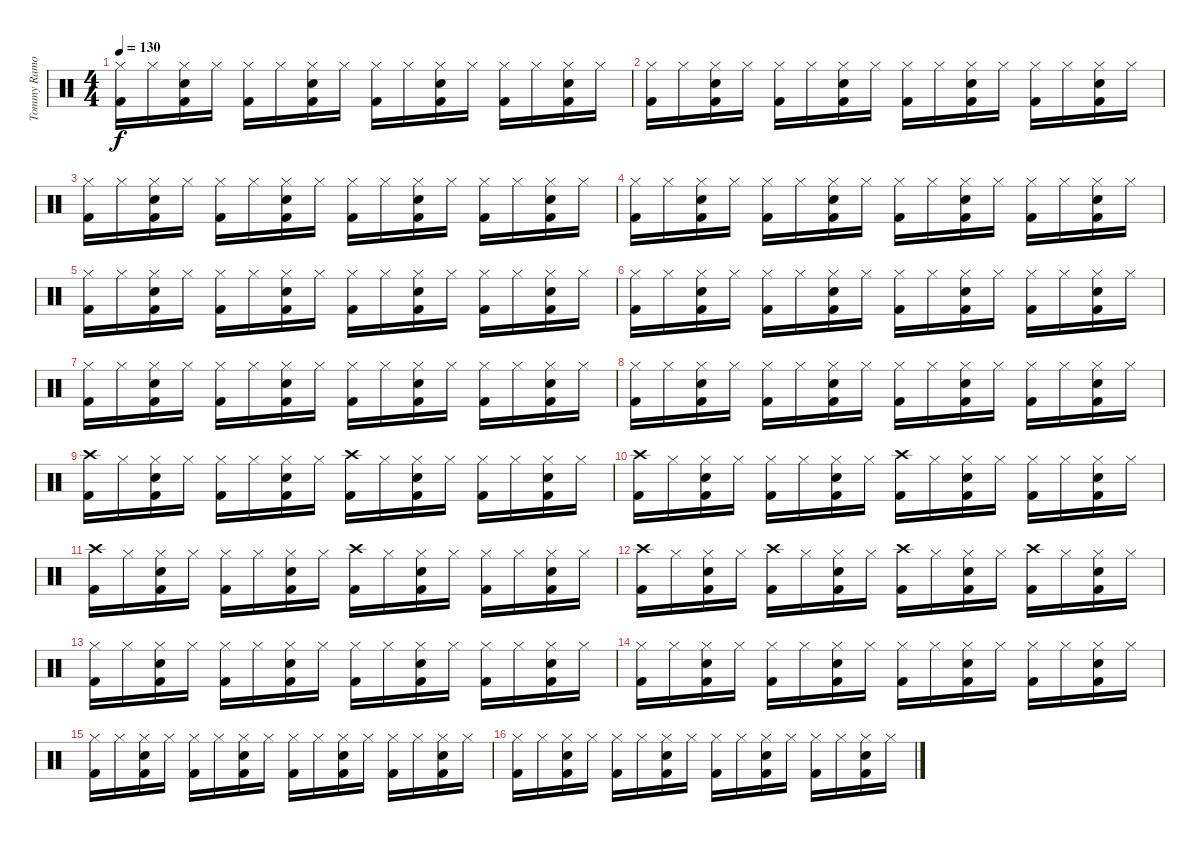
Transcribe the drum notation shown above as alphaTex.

\track ("Tommy Ramone - Percusion" "Tommy Ramo") {instrument percussion}
\staff {score}
\articulation defaults
\ts (4 4)
\tempo 130
\clef neutral
\ks c
("Hi-Hat (closed)" "Kick (hit) 2").16{dy f} "Hi-Hat (closed)".16 ("Hi-Hat (closed)" "Electric Snare (hit)" "Kick (hit) 2").16 "Hi-Hat (closed)".16 ("Hi-Hat (closed)" "Kick (hit) 2").16 "Hi-Hat (closed)".16 ("Hi-Hat (closed)" "Electric Snare (hit)" "Kick (hit) 2").16 "Hi-Hat (closed)".16 ("Hi-Hat (closed)" "Kick (hit) 2").16 "Hi-Hat (closed)".16 ("Hi-Hat (closed)" "Electric Snare (hit)" "Kick (hit) 2").16 "Hi-Hat (closed)".16 ("Hi-Hat (closed)" "Kick (hit) 2").16 "Hi-Hat (closed)".16 ("Hi-Hat (closed)" "Electric Snare (hit)" "Kick (hit) 2").16 "Hi-Hat (closed)".16 |
("Hi-Hat (closed)" "Kick (hit) 2").16 "Hi-Hat (closed)".16 ("Hi-Hat (closed)" "Electric Snare (hit)" "Kick (hit) 2").16 "Hi-Hat (closed)".16 ("Hi-Hat (closed)" "Kick (hit) 2").16 "Hi-Hat (closed)".16 ("Hi-Hat (closed)" "Electric Snare (hit)" "Kick (hit) 2").16 "Hi-Hat (closed)".16 ("Hi-Hat (closed)" "Kick (hit) 2").16 "Hi-Hat (closed)".16 ("Hi-Hat (closed)" "Electric Snare (hit)" "Kick (hit) 2").16 "Hi-Hat (closed)".16 ("Hi-Hat (closed)" "Kick (hit) 2").16 "Hi-Hat (closed)".16 ("Hi-Hat (closed)" "Electric Snare (hit)" "Kick (hit) 2").16 "Hi-Hat (closed)".16 |
("Hi-Hat (closed)" "Kick (hit) 2").16 "Hi-Hat (closed)".16 ("Hi-Hat (closed)" "Electric Snare (hit)" "Kick (hit) 2").16 "Hi-Hat (closed)".16 ("Hi-Hat (closed)" "Kick (hit) 2").16 "Hi-Hat (closed)".16 ("Hi-Hat (closed)" "Electric Snare (hit)" "Kick (hit) 2").16 "Hi-Hat (closed)".16 ("Hi-Hat (closed)" "Kick (hit) 2").16 "Hi-Hat (closed)".16 ("Hi-Hat (closed)" "Electric Snare (hit)" "Kick (hit) 2").16 "Hi-Hat (closed)".16 ("Hi-Hat (closed)" "Kick (hit) 2").16 "Hi-Hat (closed)".16 ("Hi-Hat (closed)" "Electric Snare (hit)" "Kick (hit) 2").16 "Hi-Hat (closed)".16 |
("Hi-Hat (closed)" "Kick (hit) 2").16 "Hi-Hat (closed)".16 ("Hi-Hat (closed)" "Electric Snare (hit)" "Kick (hit) 2").16 "Hi-Hat (closed)".16 ("Hi-Hat (closed)" "Kick (hit) 2").16 "Hi-Hat (closed)".16 ("Hi-Hat (closed)" "Electric Snare (hit)" "Kick (hit) 2").16 "Hi-Hat (closed)".16 ("Hi-Hat (closed)" "Kick (hit) 2").16 "Hi-Hat (closed)".16 ("Hi-Hat (closed)" "Electric Snare (hit)" "Kick (hit) 2").16 "Hi-Hat (closed)".16 ("Hi-Hat (closed)" "Kick (hit) 2").16 "Hi-Hat (closed)".16 ("Hi-Hat (closed)" "Electric Snare (hit)" "Kick (hit) 2").16 "Hi-Hat (closed)".16 |
("Hi-Hat (closed)" "Kick (hit) 2").16 "Hi-Hat (closed)".16 ("Hi-Hat (closed)" "Electric Snare (hit)" "Kick (hit) 2").16 "Hi-Hat (closed)".16 ("Hi-Hat (closed)" "Kick (hit) 2").16 "Hi-Hat (closed)".16 ("Hi-Hat (closed)" "Electric Snare (hit)" "Kick (hit) 2").16 "Hi-Hat (closed)".16 ("Hi-Hat (closed)" "Kick (hit) 2").16 "Hi-Hat (closed)".16 ("Hi-Hat (closed)" "Electric Snare (hit)" "Kick (hit) 2").16 "Hi-Hat (closed)".16 ("Hi-Hat (closed)" "Kick (hit) 2").16 "Hi-Hat (closed)".16 ("Hi-Hat (closed)" "Electric Snare (hit)" "Kick (hit) 2").16 "Hi-Hat (closed)".16 |
("Hi-Hat (closed)" "Kick (hit) 2").16 "Hi-Hat (closed)".16 ("Hi-Hat (closed)" "Electric Snare (hit)" "Kick (hit) 2").16 "Hi-Hat (closed)".16 ("Hi-Hat (closed)" "Kick (hit) 2").16 "Hi-Hat (closed)".16 ("Hi-Hat (closed)" "Electric Snare (hit)" "Kick (hit) 2").16 "Hi-Hat (closed)".16 ("Hi-Hat (closed)" "Kick (hit) 2").16 "Hi-Hat (closed)".16 ("Hi-Hat (closed)" "Electric Snare (hit)" "Kick (hit) 2").16 "Hi-Hat (closed)".16 ("Hi-Hat (closed)" "Kick (hit) 2").16 "Hi-Hat (closed)".16 ("Hi-Hat (closed)" "Electric Snare (hit)" "Kick (hit) 2").16 "Hi-Hat (closed)".16 |
("Hi-Hat (closed)" "Kick (hit) 2").16 "Hi-Hat (closed)".16 ("Hi-Hat (closed)" "Electric Snare (hit)" "Kick (hit) 2").16 "Hi-Hat (closed)".16 ("Hi-Hat (closed)" "Kick (hit) 2").16 "Hi-Hat (closed)".16 ("Hi-Hat (closed)" "Electric Snare (hit)" "Kick (hit) 2").16 "Hi-Hat (closed)".16 ("Hi-Hat (closed)" "Kick (hit) 2").16 "Hi-Hat (closed)".16 ("Hi-Hat (closed)" "Electric Snare (hit)" "Kick (hit) 2").16 "Hi-Hat (closed)".16 ("Hi-Hat (closed)" "Kick (hit) 2").16 "Hi-Hat (closed)".16 ("Hi-Hat (closed)" "Electric Snare (hit)" "Kick (hit) 2").16 "Hi-Hat (closed)".16 |
("Hi-Hat (closed)" "Kick (hit) 2").16 "Hi-Hat (closed)".16 ("Hi-Hat (closed)" "Electric Snare (hit)" "Kick (hit) 2").16 "Hi-Hat (closed)".16 ("Hi-Hat (closed)" "Kick (hit) 2").16 "Hi-Hat (closed)".16 ("Hi-Hat (closed)" "Electric Snare (hit)" "Kick (hit) 2").16 "Hi-Hat (closed)".16 ("Hi-Hat (closed)" "Kick (hit) 2").16 "Hi-Hat (closed)".16 ("Hi-Hat (closed)" "Electric Snare (hit)" "Kick (hit) 2").16 "Hi-Hat (closed)".16 ("Hi-Hat (closed)" "Kick (hit) 2").16 "Hi-Hat (closed)".16 ("Hi-Hat (closed)" "Electric Snare (hit)" "Kick (hit) 2").16 "Hi-Hat (closed)".16 |
("Crash high (hit)" "Kick (hit) 2").16 "Hi-Hat (closed)".16 ("Hi-Hat (closed)" "Electric Snare (hit)" "Kick (hit) 2").16 "Hi-Hat (closed)".16 ("Hi-Hat (closed)" "Kick (hit) 2").16 "Hi-Hat (closed)".16 ("Hi-Hat (closed)" "Electric Snare (hit)" "Kick (hit) 2").16 "Hi-Hat (closed)".16 ("Crash high (hit)" "Kick (hit) 2").16 "Hi-Hat (closed)".16 ("Hi-Hat (closed)" "Electric Snare (hit)" "Kick (hit) 2").16 "Hi-Hat (closed)".16 ("Hi-Hat (closed)" "Kick (hit) 2").16 "Hi-Hat (closed)".16 ("Hi-Hat (closed)" "Electric Snare (hit)" "Kick (hit) 2").16 "Hi-Hat (closed)".16 |
("Crash high (hit)" "Kick (hit) 2").16 "Hi-Hat (closed)".16 ("Hi-Hat (closed)" "Electric Snare (hit)" "Kick (hit) 2").16 "Hi-Hat (closed)".16 ("Hi-Hat (closed)" "Kick (hit) 2").16 "Hi-Hat (closed)".16 ("Hi-Hat (closed)" "Electric Snare (hit)" "Kick (hit) 2").16 "Hi-Hat (closed)".16 ("Crash high (hit)" "Kick (hit) 2").16 "Hi-Hat (closed)".16 ("Hi-Hat (closed)" "Electric Snare (hit)" "Kick (hit) 2").16 "Hi-Hat (closed)".16 ("Hi-Hat (closed)" "Kick (hit) 2").16 "Hi-Hat (closed)".16 ("Hi-Hat (closed)" "Electric Snare (hit)" "Kick (hit) 2").16 "Hi-Hat (closed)".16 |
("Crash high (hit)" "Kick (hit) 2").16 "Hi-Hat (closed)".16 ("Hi-Hat (closed)" "Electric Snare (hit)" "Kick (hit) 2").16 "Hi-Hat (closed)".16 ("Hi-Hat (closed)" "Kick (hit) 2").16 "Hi-Hat (closed)".16 ("Hi-Hat (closed)" "Electric Snare (hit)" "Kick (hit) 2").16 "Hi-Hat (closed)".16 ("Crash high (hit)" "Kick (hit) 2").16 "Hi-Hat (closed)".16 ("Hi-Hat (closed)" "Electric Snare (hit)" "Kick (hit) 2").16 "Hi-Hat (closed)".16 ("Hi-Hat (closed)" "Kick (hit) 2").16 "Hi-Hat (closed)".16 ("Hi-Hat (closed)" "Electric Snare (hit)" "Kick (hit) 2").16 "Hi-Hat (closed)".16 |
("Crash high (hit)" "Kick (hit) 2").16 "Hi-Hat (closed)".16 ("Hi-Hat (closed)" "Electric Snare (hit)" "Kick (hit) 2").16 "Hi-Hat (closed)".16 ("Crash high (hit)" "Kick (hit) 2").16 "Hi-Hat (closed)".16 ("Hi-Hat (closed)" "Electric Snare (hit)" "Kick (hit) 2").16 "Hi-Hat (closed)".16 ("Crash high (hit)" "Kick (hit) 2").16 "Hi-Hat (closed)".16 ("Hi-Hat (closed)" "Electric Snare (hit)" "Kick (hit) 2").16 "Hi-Hat (closed)".16 ("Crash high (hit)" "Kick (hit) 2").16 "Hi-Hat (closed)".16 ("Hi-Hat (closed)" "Electric Snare (hit)" "Kick (hit) 2").16 "Hi-Hat (closed)".16 |
("Hi-Hat (closed)" "Kick (hit) 2").16 "Hi-Hat (closed)".16 ("Hi-Hat (closed)" "Electric Snare (hit)" "Kick (hit) 2").16 "Hi-Hat (closed)".16 ("Hi-Hat (closed)" "Kick (hit) 2").16 "Hi-Hat (closed)".16 ("Hi-Hat (closed)" "Electric Snare (hit)" "Kick (hit) 2").16 "Hi-Hat (closed)".16 ("Hi-Hat (closed)" "Kick (hit) 2").16 "Hi-Hat (closed)".16 ("Hi-Hat (closed)" "Electric Snare (hit)" "Kick (hit) 2").16 "Hi-Hat (closed)".16 ("Hi-Hat (closed)" "Kick (hit) 2").16 "Hi-Hat (closed)".16 ("Hi-Hat (closed)" "Electric Snare (hit)" "Kick (hit) 2").16 "Hi-Hat (closed)".16 |
("Hi-Hat (closed)" "Kick (hit) 2").16 "Hi-Hat (closed)".16 ("Hi-Hat (closed)" "Electric Snare (hit)" "Kick (hit) 2").16 "Hi-Hat (closed)".16 ("Hi-Hat (closed)" "Kick (hit) 2").16 "Hi-Hat (closed)".16 ("Hi-Hat (closed)" "Electric Snare (hit)" "Kick (hit) 2").16 "Hi-Hat (closed)".16 ("Hi-Hat (closed)" "Kick (hit) 2").16 "Hi-Hat (closed)".16 ("Hi-Hat (closed)" "Electric Snare (hit)" "Kick (hit) 2").16 "Hi-Hat (closed)".16 ("Hi-Hat (closed)" "Kick (hit) 2").16 "Hi-Hat (closed)".16 ("Hi-Hat (closed)" "Electric Snare (hit)" "Kick (hit) 2").16 "Hi-Hat (closed)".16 |
("Hi-Hat (closed)" "Kick (hit) 2").16 "Hi-Hat (closed)".16 ("Hi-Hat (closed)" "Electric Snare (hit)" "Kick (hit) 2").16 "Hi-Hat (closed)".16 ("Hi-Hat (closed)" "Kick (hit) 2").16 "Hi-Hat (closed)".16 ("Hi-Hat (closed)" "Electric Snare (hit)" "Kick (hit) 2").16 "Hi-Hat (closed)".16 ("Hi-Hat (closed)" "Kick (hit) 2").16 "Hi-Hat (closed)".16 ("Hi-Hat (closed)" "Electric Snare (hit)" "Kick (hit) 2").16 "Hi-Hat (closed)".16 ("Hi-Hat (closed)" "Kick (hit) 2").16 "Hi-Hat (closed)".16 ("Hi-Hat (closed)" "Electric Snare (hit)" "Kick (hit) 2").16 "Hi-Hat (closed)".16 |
("Hi-Hat (closed)" "Kick (hit) 2").16 "Hi-Hat (closed)".16 ("Hi-Hat (closed)" "Electric Snare (hit)" "Kick (hit) 2").16 "Hi-Hat (closed)".16 ("Hi-Hat (closed)" "Kick (hit) 2").16 "Hi-Hat (closed)".16 ("Hi-Hat (closed)" "Electric Snare (hit)" "Kick (hit) 2").16 "Hi-Hat (closed)".16 ("Hi-Hat (closed)" "Kick (hit) 2").16 "Hi-Hat (closed)".16 ("Hi-Hat (closed)" "Electric Snare (hit)" "Kick (hit) 2").16 "Hi-Hat (closed)".16 ("Hi-Hat (closed)" "Kick (hit) 2").16 "Hi-Hat (closed)".16 ("Hi-Hat (closed)" "Electric Snare (hit)" "Kick (hit) 2").16 "Hi-Hat (closed)".16
